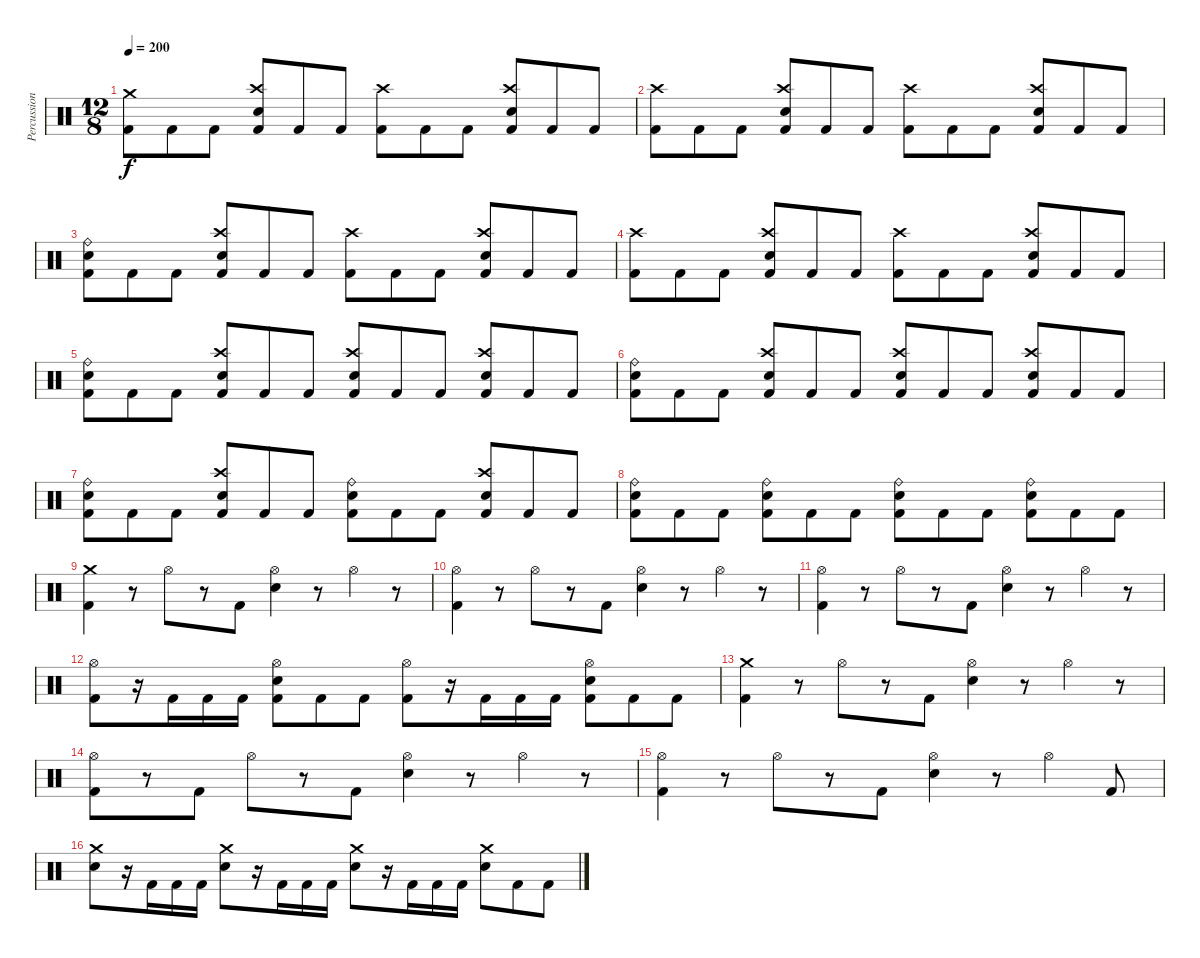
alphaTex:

\track ("Percussion" "Percussion") {instrument percussion}
\staff {score}
\articulation defaults
\ts (12 8)
\tempo 200
\clef neutral
\ks c
("Crash medium (hit)" "Kick (hit) 2").8{dy f} "Kick (hit) 2".8 "Kick (hit) 2".8 ("Crash high (hit)" "Snare (hit) 2" "Kick (hit) 2").8 "Kick (hit) 2".8 "Kick (hit) 2".8 ("Crash high (hit)" "Kick (hit) 2").8 "Kick (hit) 2".8 "Kick (hit) 2".8 ("Crash high (hit)" "Snare (hit) 2" "Kick (hit) 2").8 "Kick (hit) 2".8 "Kick (hit) 2".8 |
("Crash high (hit)" "Kick (hit) 2").8 "Kick (hit) 2".8 "Kick (hit) 2".8 ("Crash high (hit)" "Snare (hit) 2" "Kick (hit) 2").8 "Kick (hit) 2".8 "Kick (hit) 2".8 ("Crash high (hit)" "Kick (hit) 2").8 "Kick (hit) 2".8 "Kick (hit) 2".8 ("Crash high (hit)" "Snare (hit) 2" "Kick (hit) 2").8 "Kick (hit) 2".8 "Kick (hit) 2".8 |
("Ride (bell)" "Snare (hit) 2" "Kick (hit) 2").8 "Kick (hit) 2".8 "Kick (hit) 2".8 ("Crash high (hit)" "Snare (hit) 2" "Kick (hit) 2").8 "Kick (hit) 2".8 "Kick (hit) 2".8 ("Crash high (hit)" "Kick (hit) 2").8 "Kick (hit) 2".8 "Kick (hit) 2".8 ("Crash high (hit)" "Snare (hit) 2" "Kick (hit) 2").8 "Kick (hit) 2".8 "Kick (hit) 2".8 |
("Crash high (hit)" "Kick (hit) 2").8 "Kick (hit) 2".8 "Kick (hit) 2".8 ("Crash high (hit)" "Snare (hit) 2" "Kick (hit) 2").8 "Kick (hit) 2".8 "Kick (hit) 2".8 ("Crash high (hit)" "Kick (hit) 2").8 "Kick (hit) 2".8 "Kick (hit) 2".8 ("Crash high (hit)" "Snare (hit) 2" "Kick (hit) 2").8 "Kick (hit) 2".8 "Kick (hit) 2".8 |
("Ride (bell)" "Snare (hit) 2" "Kick (hit) 2").8 "Kick (hit) 2".8 "Kick (hit) 2".8 ("Crash high (hit)" "Snare (hit) 2" "Kick (hit) 2").8 "Kick (hit) 2".8 "Kick (hit) 2".8 ("Crash high (hit)" "Snare (hit) 2" "Kick (hit) 2").8 "Kick (hit) 2".8 "Kick (hit) 2".8 ("Crash high (hit)" "Snare (hit) 2" "Kick (hit) 2").8 "Kick (hit) 2".8 "Kick (hit) 2".8 |
("Ride (bell)" "Snare (hit) 2" "Kick (hit) 2").8 "Kick (hit) 2".8 "Kick (hit) 2".8 ("Crash high (hit)" "Snare (hit) 2" "Kick (hit) 2").8 "Kick (hit) 2".8 "Kick (hit) 2".8 ("Crash high (hit)" "Snare (hit) 2" "Kick (hit) 2").8 "Kick (hit) 2".8 "Kick (hit) 2".8 ("Crash high (hit)" "Snare (hit) 2" "Kick (hit) 2").8 "Kick (hit) 2".8 "Kick (hit) 2".8 |
("Ride (bell)" "Snare (hit) 2" "Kick (hit) 2").8 "Kick (hit) 2".8 "Kick (hit) 2".8 ("Crash high (hit)" "Snare (hit) 2" "Kick (hit) 2").8 "Kick (hit) 2".8 "Kick (hit) 2".8 ("Ride (bell)" "Snare (hit) 2" "Kick (hit) 2").8 "Kick (hit) 2".8 "Kick (hit) 2".8 ("Crash high (hit)" "Snare (hit) 2" "Kick (hit) 2").8 "Kick (hit) 2".8 "Kick (hit) 2".8 |
("Ride (bell)" "Snare (hit) 2" "Kick (hit) 2").8 "Kick (hit) 2".8 "Kick (hit) 2".8 ("Ride (bell)" "Snare (hit) 2" "Kick (hit) 2").8 "Kick (hit) 2".8 "Kick (hit) 2".8 ("Ride (bell)" "Snare (hit) 2" "Kick (hit) 2").8 "Kick (hit) 2".8 "Kick (hit) 2".8 ("Ride (bell)" "Snare (hit) 2" "Kick (hit) 2").8 "Kick (hit) 2".8 "Kick (hit) 2".8 |
("Crash medium (hit)" "Kick (hit) 2").4 r.8 "Hi-Hat (open)".8 r.8 "Kick (hit) 2".8 ("Hi-Hat (open)" "Snare (hit) 2").4 r.8 "Hi-Hat (open)".4 r.8 |
("Hi-Hat (open)" "Kick (hit) 2").4 r.8 "Hi-Hat (open)".8 r.8 "Kick (hit) 2".8 ("Hi-Hat (open)" "Snare (hit) 2").4 r.8 "Hi-Hat (open)".4 r.8 |
("Hi-Hat (open)" "Kick (hit) 2").4 r.8 "Hi-Hat (open)".8 r.8 "Kick (hit) 2".8 ("Hi-Hat (open)" "Snare (hit) 2").4 r.8 "Hi-Hat (open)".4 r.8 |
("Hi-Hat (open)" "Kick (hit) 2").8 r.16 "Kick (hit) 2".16 "Kick (hit) 2".16 "Kick (hit) 2".16 ("Hi-Hat (open)" "Snare (hit) 2" "Kick (hit) 2").8 "Kick (hit) 2".8 "Kick (hit) 2".8 ("Hi-Hat (open)" "Kick (hit) 2").8 r.16 "Kick (hit) 2".16 "Kick (hit) 2".16 "Kick (hit) 2".16 ("Hi-Hat (open)" "Snare (hit) 2" "Kick (hit) 2").8 "Kick (hit) 2".8 "Kick (hit) 2".8 |
("Crash medium (hit)" "Kick (hit) 2").4 r.8 "Hi-Hat (open)".8 r.8 "Kick (hit) 2".8 ("Hi-Hat (open)" "Snare (hit) 2").4 r.8 "Hi-Hat (open)".4 r.8 |
("Hi-Hat (open)" "Kick (hit) 2").8 r.8 "Kick (hit) 2".8 "Hi-Hat (open)".8 r.8 "Kick (hit) 2".8 ("Hi-Hat (open)" "Snare (hit) 2").4 r.8 "Hi-Hat (open)".4 r.8 |
("Hi-Hat (open)" "Kick (hit) 2").4 r.8 "Hi-Hat (open)".8 r.8 "Kick (hit) 2".8 ("Hi-Hat (open)" "Snare (hit) 2").4 r.8 "Hi-Hat (open)".4 "Kick (hit) 2".8 |
("Crash medium (hit)" "Snare (hit) 2").8 r.16 "Kick (hit) 2".16 "Kick (hit) 2".16 "Kick (hit) 2".16 ("Crash medium (hit)" "Snare (hit) 2").8 r.16 "Kick (hit) 2".16 "Kick (hit) 2".16 "Kick (hit) 2".16 ("Crash medium (hit)" "Snare (hit) 2").8 r.16 "Kick (hit) 2".16 "Kick (hit) 2".16 "Kick (hit) 2".16 ("Crash medium (hit)" "Snare (hit) 2").8 "Kick (hit) 2".8 "Kick (hit) 2".8
